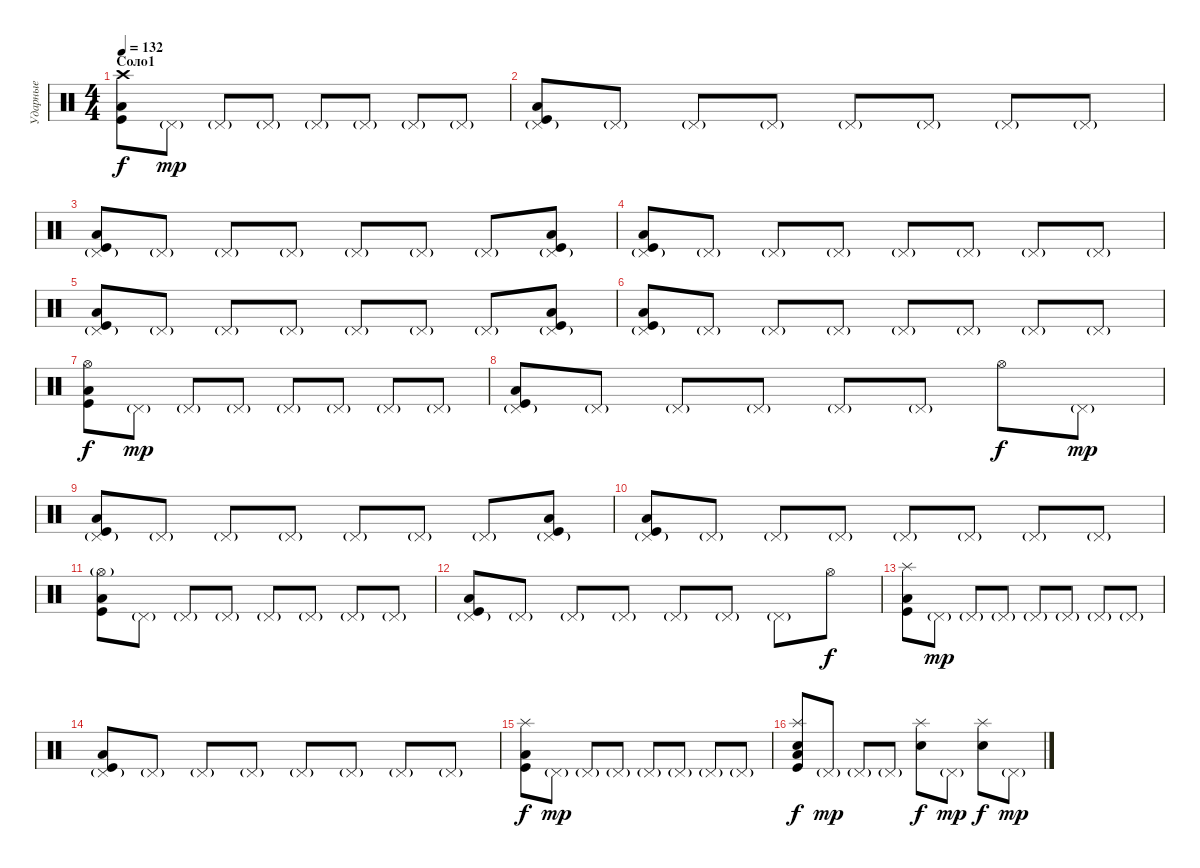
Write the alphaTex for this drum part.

\track ("Ударные" "Ударные") {instrument percussion}
\staff {score}
\articulation defaults
\ts (4 4)
\section ("" "Соло1")
\tempo 132
\clef neutral
\ks c
("Crash high (hit)" "Low Tom (hit)" "Kick (hit)").8{dy f} "Pedal Hi-Hat (hit)"{g}.8{dy mp} "Pedal Hi-Hat (hit)"{g}.8 "Pedal Hi-Hat (hit)"{g}.8 "Pedal Hi-Hat (hit)"{g}.8 "Pedal Hi-Hat (hit)"{g}.8 "Pedal Hi-Hat (hit)"{g}.8 "Pedal Hi-Hat (hit)"{g}.8 |
("Pedal Hi-Hat (hit)"{g} "Low Tom (hit)" "Kick (hit)").8 "Pedal Hi-Hat (hit)"{g}.8 "Pedal Hi-Hat (hit)"{g}.8 "Pedal Hi-Hat (hit)"{g}.8 "Pedal Hi-Hat (hit)"{g}.8 "Pedal Hi-Hat (hit)"{g}.8 "Pedal Hi-Hat (hit)"{g}.8 "Pedal Hi-Hat (hit)"{g}.8 |
("Pedal Hi-Hat (hit)"{g} "Low Tom (hit)" "Kick (hit)").8 "Pedal Hi-Hat (hit)"{g}.8 "Pedal Hi-Hat (hit)"{g}.8 "Pedal Hi-Hat (hit)"{g}.8 "Pedal Hi-Hat (hit)"{g}.8 "Pedal Hi-Hat (hit)"{g}.8 "Pedal Hi-Hat (hit)"{g}.8 ("Pedal Hi-Hat (hit)"{g} "Low Tom (hit)" "Kick (hit)").8 |
("Pedal Hi-Hat (hit)"{g} "Low Tom (hit)" "Kick (hit)").8 "Pedal Hi-Hat (hit)"{g}.8 "Pedal Hi-Hat (hit)"{g}.8 "Pedal Hi-Hat (hit)"{g}.8 "Pedal Hi-Hat (hit)"{g}.8 "Pedal Hi-Hat (hit)"{g}.8 "Pedal Hi-Hat (hit)"{g}.8 "Pedal Hi-Hat (hit)"{g}.8 |
("Pedal Hi-Hat (hit)"{g} "Low Tom (hit)" "Kick (hit)").8 "Pedal Hi-Hat (hit)"{g}.8 "Pedal Hi-Hat (hit)"{g}.8 "Pedal Hi-Hat (hit)"{g}.8 "Pedal Hi-Hat (hit)"{g}.8 "Pedal Hi-Hat (hit)"{g}.8 "Pedal Hi-Hat (hit)"{g}.8 ("Pedal Hi-Hat (hit)"{g} "Low Tom (hit)" "Kick (hit)").8 |
("Pedal Hi-Hat (hit)"{g} "Low Tom (hit)" "Kick (hit)").8 "Pedal Hi-Hat (hit)"{g}.8 "Pedal Hi-Hat (hit)"{g}.8 "Pedal Hi-Hat (hit)"{g}.8 "Pedal Hi-Hat (hit)"{g}.8 "Pedal Hi-Hat (hit)"{g}.8 "Pedal Hi-Hat (hit)"{g}.8 "Pedal Hi-Hat (hit)"{g}.8 |
("Hi-Hat (open)" "Low Tom (hit)" "Kick (hit)").8{dy f} "Pedal Hi-Hat (hit)"{g}.8{dy mp} "Pedal Hi-Hat (hit)"{g}.8 "Pedal Hi-Hat (hit)"{g}.8 "Pedal Hi-Hat (hit)"{g}.8 "Pedal Hi-Hat (hit)"{g}.8 "Pedal Hi-Hat (hit)"{g}.8 "Pedal Hi-Hat (hit)"{g}.8 |
("Pedal Hi-Hat (hit)"{g} "Low Tom (hit)" "Kick (hit)").8 "Pedal Hi-Hat (hit)"{g}.8 "Pedal Hi-Hat (hit)"{g}.8 "Pedal Hi-Hat (hit)"{g}.8 "Pedal Hi-Hat (hit)"{g}.8 "Pedal Hi-Hat (hit)"{g}.8 "Hi-Hat (open)".8{dy f} "Pedal Hi-Hat (hit)"{g}.8{dy mp} |
("Pedal Hi-Hat (hit)"{g} "Low Tom (hit)" "Kick (hit)").8 "Pedal Hi-Hat (hit)"{g}.8 "Pedal Hi-Hat (hit)"{g}.8 "Pedal Hi-Hat (hit)"{g}.8 "Pedal Hi-Hat (hit)"{g}.8 "Pedal Hi-Hat (hit)"{g}.8 "Pedal Hi-Hat (hit)"{g}.8 ("Pedal Hi-Hat (hit)"{g} "Low Tom (hit)" "Kick (hit)").8 |
("Pedal Hi-Hat (hit)"{g} "Low Tom (hit)" "Kick (hit)").8 "Pedal Hi-Hat (hit)"{g}.8 "Pedal Hi-Hat (hit)"{g}.8 "Pedal Hi-Hat (hit)"{g}.8 "Pedal Hi-Hat (hit)"{g}.8 "Pedal Hi-Hat (hit)"{g}.8 "Pedal Hi-Hat (hit)"{g}.8 "Pedal Hi-Hat (hit)"{g}.8 |
("Hi-Hat (open)"{g} "Low Tom (hit)" "Kick (hit)").8 "Pedal Hi-Hat (hit)"{g}.8 "Pedal Hi-Hat (hit)"{g}.8 "Pedal Hi-Hat (hit)"{g}.8 "Pedal Hi-Hat (hit)"{g}.8 "Pedal Hi-Hat (hit)"{g}.8 "Pedal Hi-Hat (hit)"{g}.8 "Pedal Hi-Hat (hit)"{g}.8 |
("Pedal Hi-Hat (hit)"{g} "Low Tom (hit)" "Kick (hit)").8 "Pedal Hi-Hat (hit)"{g}.8 "Pedal Hi-Hat (hit)"{g}.8 "Pedal Hi-Hat (hit)"{g}.8 "Pedal Hi-Hat (hit)"{g}.8 "Pedal Hi-Hat (hit)"{g}.8 "Pedal Hi-Hat (hit)"{g}.8 "Hi-Hat (open)".8{dy f} |
("Splash (hit)" "Low Tom (hit)" "Kick (hit)").8 "Pedal Hi-Hat (hit)"{g}.8{dy mp} "Pedal Hi-Hat (hit)"{g}.8 "Pedal Hi-Hat (hit)"{g}.8 "Pedal Hi-Hat (hit)"{g}.8 "Pedal Hi-Hat (hit)"{g}.8 "Pedal Hi-Hat (hit)"{g}.8 "Pedal Hi-Hat (hit)"{g}.8 |
("Pedal Hi-Hat (hit)"{g} "Low Tom (hit)" "Kick (hit)").8 "Pedal Hi-Hat (hit)"{g}.8 "Pedal Hi-Hat (hit)"{g}.8 "Pedal Hi-Hat (hit)"{g}.8 "Pedal Hi-Hat (hit)"{g}.8 "Pedal Hi-Hat (hit)"{g}.8 "Pedal Hi-Hat (hit)"{g}.8 "Pedal Hi-Hat (hit)"{g}.8 |
("Splash (hit)" "Low Tom (hit)" "Kick (hit)").8{dy f} "Pedal Hi-Hat (hit)"{g}.8{dy mp} "Pedal Hi-Hat (hit)"{g}.8 "Pedal Hi-Hat (hit)"{g}.8 "Pedal Hi-Hat (hit)"{g}.8 "Pedal Hi-Hat (hit)"{g}.8 "Pedal Hi-Hat (hit)"{g}.8 "Pedal Hi-Hat (hit)"{g}.8 |
("Splash (hit)" "Snare (hit) 2" "Low Tom (hit)" "Kick (hit)").8{dy f} "Pedal Hi-Hat (hit)"{g}.8{dy mp} "Pedal Hi-Hat (hit)"{g}.8 "Pedal Hi-Hat (hit)"{g}.8 ("Splash (hit)" "Snare (hit) 2").8{dy f} "Pedal Hi-Hat (hit)"{g}.8{dy mp} ("Splash (hit)" "Snare (hit) 2").8{dy f} "Pedal Hi-Hat (hit)"{g}.8{dy mp}
